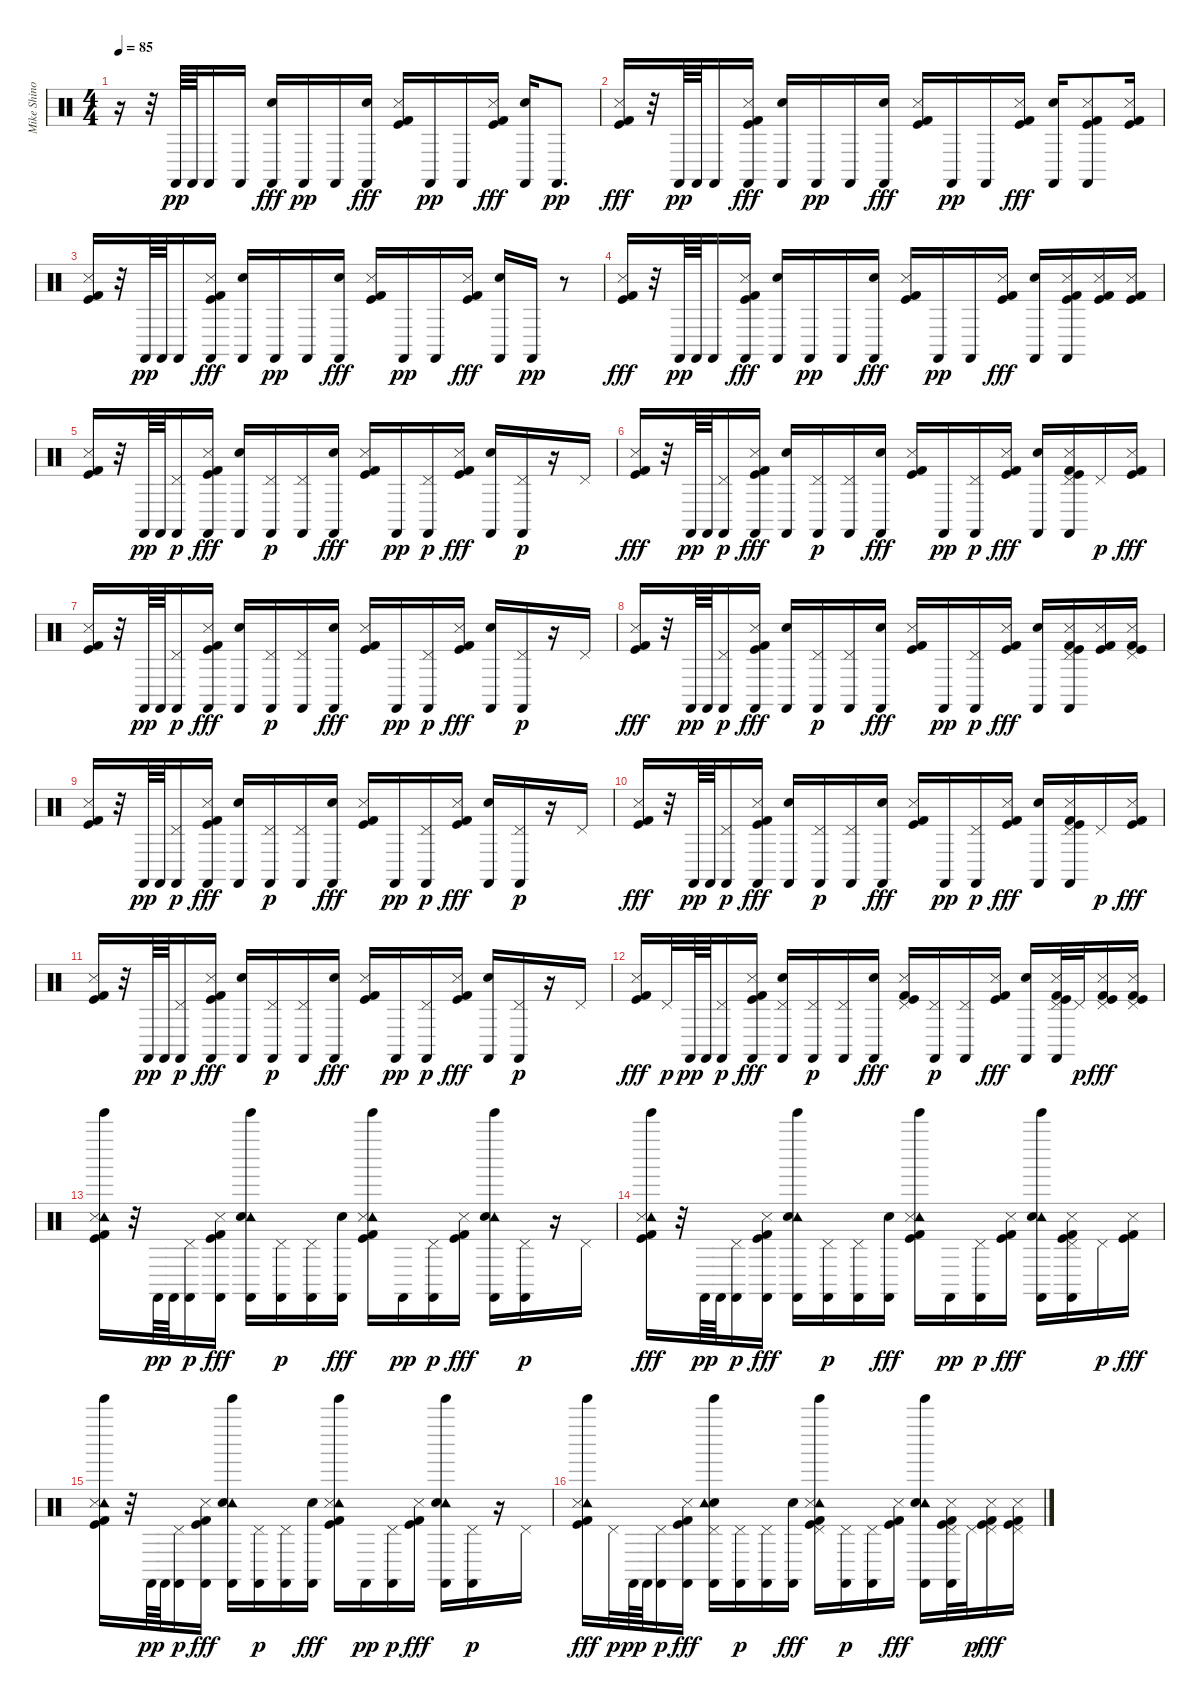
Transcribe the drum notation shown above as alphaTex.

\track ("Mike Shinoda - Percussion" "Mike Shino") {instrument percussion}
\staff {score}
\articulation defaults
\ts (4 4)
\tempo 85
\clef neutral
\ks c
r.16{dy fff} r.32 "Castanets (hit)".64{dy pp} "Castanets (hit)".64 "Castanets (hit)".16 "Castanets (hit)".16 ("Castanets (hit)" "Hand Clap (hit)").16{dy fff} "Castanets (hit)".16{dy pp} "Castanets (hit)".16 ("Castanets (hit)" "Hand Clap (hit)").16{dy fff} ("Snare (side stick) 3" "Kick (hit)" "Kick (hit) 2").16 "Castanets (hit)".16{dy pp} "Castanets (hit)".16 ("Snare (side stick) 3" "Kick (hit)" "Kick (hit) 2").16{dy fff} ("Castanets (hit)" "Hand Clap (hit)").16 "Castanets (hit)".8{d dy pp} |
("Snare (side stick) 3" "Kick (hit)" "Kick (hit) 2").16{dy fff} r.32 "Castanets (hit)".64{dy pp} "Castanets (hit)".64 "Castanets (hit)".16 ("Castanets (hit)" "Snare (side stick) 3" "Kick (hit)" "Kick (hit) 2").16{dy fff} ("Castanets (hit)" "Hand Clap (hit)").16 "Castanets (hit)".16{dy pp} "Castanets (hit)".16 ("Castanets (hit)" "Hand Clap (hit)").16{dy fff} ("Snare (side stick) 3" "Kick (hit)" "Kick (hit) 2").16 "Castanets (hit)".16{dy pp} "Castanets (hit)".16 ("Snare (side stick) 3" "Kick (hit)" "Kick (hit) 2").16{dy fff} ("Castanets (hit)" "Hand Clap (hit)").16 ("Castanets (hit)" "Snare (side stick) 3" "Kick (hit)" "Kick (hit) 2").8 ("Snare (side stick) 3" "Kick (hit)" "Kick (hit) 2").16 |
("Snare (side stick) 3" "Kick (hit)" "Kick (hit) 2").16 r.32 "Castanets (hit)".64{dy pp} "Castanets (hit)".64 "Castanets (hit)".16 ("Castanets (hit)" "Snare (side stick) 3" "Kick (hit)" "Kick (hit) 2").16{dy fff} ("Castanets (hit)" "Hand Clap (hit)").16 "Castanets (hit)".16{dy pp} "Castanets (hit)".16 ("Castanets (hit)" "Hand Clap (hit)").16{dy fff} ("Snare (side stick) 3" "Kick (hit)" "Kick (hit) 2").16 "Castanets (hit)".16{dy pp} "Castanets (hit)".16 ("Snare (side stick) 3" "Kick (hit)" "Kick (hit) 2").16{dy fff} ("Castanets (hit)" "Hand Clap (hit)").16 "Castanets (hit)".16{dy pp} r.8 |
("Snare (side stick) 3" "Kick (hit)" "Kick (hit) 2").16{dy fff} r.32 "Castanets (hit)".64{dy pp} "Castanets (hit)".64 "Castanets (hit)".16 ("Castanets (hit)" "Snare (side stick) 3" "Kick (hit)" "Kick (hit) 2").16{dy fff} ("Castanets (hit)" "Hand Clap (hit)").16 "Castanets (hit)".16{dy pp} "Castanets (hit)".16 ("Castanets (hit)" "Hand Clap (hit)").16{dy fff} ("Snare (side stick) 3" "Kick (hit)" "Kick (hit) 2").16 "Castanets (hit)".16{dy pp} "Castanets (hit)".16 ("Snare (side stick) 3" "Kick (hit)" "Kick (hit) 2").16{dy fff} ("Castanets (hit)" "Hand Clap (hit)").16 ("Castanets (hit)" "Snare (side stick) 3" "Kick (hit)" "Kick (hit) 2").16 ("Snare (side stick) 3" "Kick (hit)" "Kick (hit) 2").16 ("Snare (side stick) 3" "Kick (hit)" "Kick (hit) 2").16 |
("Snare (side stick) 3" "Kick (hit)" "Kick (hit) 2").16 r.32 "Castanets (hit)".64{dy pp} "Castanets (hit)".64 ("Castanets (hit)" "Pedal Hi-Hat (hit)").16{dy p} ("Castanets (hit)" "Snare (side stick) 3" "Kick (hit)" "Kick (hit) 2").16{dy fff} ("Castanets (hit)" "Hand Clap (hit)").16 ("Castanets (hit)" "Pedal Hi-Hat (hit)").16{dy p} ("Castanets (hit)" "Pedal Hi-Hat (hit)").16 ("Castanets (hit)" "Hand Clap (hit)").16{dy fff} ("Snare (side stick) 3" "Kick (hit)" "Kick (hit) 2").16 "Castanets (hit)".16{dy pp} ("Castanets (hit)" "Pedal Hi-Hat (hit)").16{dy p} ("Snare (side stick) 3" "Kick (hit)" "Kick (hit) 2").16{dy fff} ("Castanets (hit)" "Hand Clap (hit)").16 ("Castanets (hit)" "Pedal Hi-Hat (hit)").16{dy p} r.16 "Pedal Hi-Hat (hit)".16 |
("Snare (side stick) 3" "Kick (hit)" "Kick (hit) 2").16{dy fff} r.32 "Castanets (hit)".64{dy pp} "Castanets (hit)".64 ("Castanets (hit)" "Pedal Hi-Hat (hit)").16{dy p} ("Castanets (hit)" "Snare (side stick) 3" "Kick (hit)" "Kick (hit) 2").16{dy fff} ("Castanets (hit)" "Hand Clap (hit)").16 ("Castanets (hit)" "Pedal Hi-Hat (hit)").16{dy p} ("Castanets (hit)" "Pedal Hi-Hat (hit)").16 ("Castanets (hit)" "Hand Clap (hit)").16{dy fff} ("Snare (side stick) 3" "Kick (hit)" "Kick (hit) 2").16 "Castanets (hit)".16{dy pp} ("Castanets (hit)" "Pedal Hi-Hat (hit)").16{dy p} ("Snare (side stick) 3" "Kick (hit)" "Kick (hit) 2").16{dy fff} ("Castanets (hit)" "Hand Clap (hit)").16 ("Castanets (hit)" "Pedal Hi-Hat (hit)" "Snare (side stick) 3" "Kick (hit)" "Kick (hit) 2").16 "Pedal Hi-Hat (hit)".16{dy p} ("Snare (side stick) 3" "Kick (hit)" "Kick (hit) 2").16{dy fff} |
("Snare (side stick) 3" "Kick (hit)" "Kick (hit) 2").16 r.32 "Castanets (hit)".64{dy pp} "Castanets (hit)".64 ("Castanets (hit)" "Pedal Hi-Hat (hit)").16{dy p} ("Castanets (hit)" "Snare (side stick) 3" "Kick (hit)" "Kick (hit) 2").16{dy fff} ("Castanets (hit)" "Hand Clap (hit)").16 ("Castanets (hit)" "Pedal Hi-Hat (hit)").16{dy p} ("Castanets (hit)" "Pedal Hi-Hat (hit)").16 ("Castanets (hit)" "Hand Clap (hit)").16{dy fff} ("Snare (side stick) 3" "Kick (hit)" "Kick (hit) 2").16 "Castanets (hit)".16{dy pp} ("Castanets (hit)" "Pedal Hi-Hat (hit)").16{dy p} ("Snare (side stick) 3" "Kick (hit)" "Kick (hit) 2").16{dy fff} ("Castanets (hit)" "Hand Clap (hit)").16 ("Castanets (hit)" "Pedal Hi-Hat (hit)").16{dy p} r.16 "Pedal Hi-Hat (hit)".16 |
("Snare (side stick) 3" "Kick (hit)" "Kick (hit) 2").16{dy fff} r.32 "Castanets (hit)".64{dy pp} "Castanets (hit)".64 ("Castanets (hit)" "Pedal Hi-Hat (hit)").16{dy p} ("Castanets (hit)" "Snare (side stick) 3" "Kick (hit)" "Kick (hit) 2").16{dy fff} ("Castanets (hit)" "Hand Clap (hit)").16 ("Castanets (hit)" "Pedal Hi-Hat (hit)").16{dy p} ("Castanets (hit)" "Pedal Hi-Hat (hit)").16 ("Castanets (hit)" "Hand Clap (hit)").16{dy fff} ("Snare (side stick) 3" "Kick (hit)" "Kick (hit) 2").16 "Castanets (hit)".16{dy pp} ("Castanets (hit)" "Pedal Hi-Hat (hit)").16{dy p} ("Snare (side stick) 3" "Kick (hit)" "Kick (hit) 2").16{dy fff} ("Castanets (hit)" "Hand Clap (hit)").16 ("Castanets (hit)" "Pedal Hi-Hat (hit)" "Snare (side stick) 3" "Kick (hit)" "Kick (hit) 2").16 ("Snare (side stick) 3" "Kick (hit)" "Kick (hit) 2").16 ("Pedal Hi-Hat (hit)" "Snare (side stick) 3" "Kick (hit)" "Kick (hit) 2").16 |
("Snare (side stick) 3" "Kick (hit)" "Kick (hit) 2").16 r.32 "Castanets (hit)".64{dy pp} "Castanets (hit)".64 ("Castanets (hit)" "Pedal Hi-Hat (hit)").16{dy p} ("Castanets (hit)" "Snare (side stick) 3" "Kick (hit)" "Kick (hit) 2").16{dy fff} ("Castanets (hit)" "Hand Clap (hit)").16 ("Castanets (hit)" "Pedal Hi-Hat (hit)").16{dy p} ("Castanets (hit)" "Pedal Hi-Hat (hit)").16 ("Castanets (hit)" "Hand Clap (hit)").16{dy fff} ("Snare (side stick) 3" "Kick (hit)" "Kick (hit) 2").16 "Castanets (hit)".16{dy pp} ("Castanets (hit)" "Pedal Hi-Hat (hit)").16{dy p} ("Snare (side stick) 3" "Kick (hit)" "Kick (hit) 2").16{dy fff} ("Castanets (hit)" "Hand Clap (hit)").16 ("Castanets (hit)" "Pedal Hi-Hat (hit)").16{dy p} r.16 "Pedal Hi-Hat (hit)".16 |
("Snare (side stick) 3" "Kick (hit)" "Kick (hit) 2").16{dy fff} r.32 "Castanets (hit)".64{dy pp} "Castanets (hit)".64 ("Castanets (hit)" "Pedal Hi-Hat (hit)").16{dy p} ("Castanets (hit)" "Snare (side stick) 3" "Kick (hit)" "Kick (hit) 2").16{dy fff} ("Castanets (hit)" "Hand Clap (hit)").16 ("Castanets (hit)" "Pedal Hi-Hat (hit)").16{dy p} ("Castanets (hit)" "Pedal Hi-Hat (hit)").16 ("Castanets (hit)" "Hand Clap (hit)").16{dy fff} ("Snare (side stick) 3" "Kick (hit)" "Kick (hit) 2").16 "Castanets (hit)".16{dy pp} ("Castanets (hit)" "Pedal Hi-Hat (hit)").16{dy p} ("Snare (side stick) 3" "Kick (hit)" "Kick (hit) 2").16{dy fff} ("Castanets (hit)" "Hand Clap (hit)").16 ("Castanets (hit)" "Pedal Hi-Hat (hit)" "Snare (side stick) 3" "Kick (hit)" "Kick (hit) 2").16 "Pedal Hi-Hat (hit)".16{dy p} ("Snare (side stick) 3" "Kick (hit)" "Kick (hit) 2").16{dy fff} |
("Snare (side stick) 3" "Kick (hit)" "Kick (hit) 2").16 r.32 "Castanets (hit)".64{dy pp} "Castanets (hit)".64 ("Castanets (hit)" "Pedal Hi-Hat (hit)").16{dy p} ("Castanets (hit)" "Snare (side stick) 3" "Kick (hit)" "Kick (hit) 2").16{dy fff} ("Castanets (hit)" "Hand Clap (hit)").16 ("Castanets (hit)" "Pedal Hi-Hat (hit)").16{dy p} ("Castanets (hit)" "Pedal Hi-Hat (hit)").16 ("Castanets (hit)" "Hand Clap (hit)").16{dy fff} ("Snare (side stick) 3" "Kick (hit)" "Kick (hit) 2").16 "Castanets (hit)".16{dy pp} ("Castanets (hit)" "Pedal Hi-Hat (hit)").16{dy p} ("Snare (side stick) 3" "Kick (hit)" "Kick (hit) 2").16{dy fff} ("Castanets (hit)" "Hand Clap (hit)").16 ("Castanets (hit)" "Pedal Hi-Hat (hit)").16{dy p} r.16 "Pedal Hi-Hat (hit)".16 |
("Snare (side stick) 3" "Kick (hit)" "Kick (hit) 2").16{dy fff} "Pedal Hi-Hat (hit)".32{dy p} "Castanets (hit)".64{dy pp} "Castanets (hit)".64 ("Castanets (hit)" "Pedal Hi-Hat (hit)").16{dy p} ("Castanets (hit)" "Snare (side stick) 3" "Kick (hit)" "Kick (hit) 2").16{dy fff} ("Castanets (hit)" "Pedal Hi-Hat (hit)" "Hand Clap (hit)").16 ("Castanets (hit)" "Pedal Hi-Hat (hit)").16{dy p} ("Castanets (hit)" "Pedal Hi-Hat (hit)").16 ("Castanets (hit)" "Hand Clap (hit)").16{dy fff} ("Pedal Hi-Hat (hit)" "Snare (side stick) 3" "Kick (hit)" "Kick (hit) 2").16 ("Castanets (hit)" "Pedal Hi-Hat (hit)").16{dy p} ("Castanets (hit)" "Pedal Hi-Hat (hit)").16 ("Snare (side stick) 3" "Kick (hit)" "Kick (hit) 2").16{dy fff} ("Castanets (hit)" "Hand Clap (hit)").16 ("Castanets (hit)" "Pedal Hi-Hat (hit)" "Snare (side stick) 3" "Kick (hit)" "Kick (hit) 2").32 "Pedal Hi-Hat (hit)".32{dy p} ("Pedal Hi-Hat (hit)" "Snare (side stick) 3" "Kick (hit)" "Kick (hit) 2").16{dy fff} ("Pedal Hi-Hat (hit)" "Snare (side stick) 3" "Kick (hit)" "Kick (hit) 2").16 |
("Tambourine (hit)" "Tinkle Bell (hit)" "Snare (side stick) 3" "Kick (hit)" "Kick (hit) 2").16 r.32 "Castanets (hit)".64{dy pp} "Castanets (hit)".64 ("Castanets (hit)" "Pedal Hi-Hat (hit)").16{dy p} ("Castanets (hit)" "Snare (side stick) 3" "Kick (hit)" "Kick (hit) 2").16{dy fff} ("Castanets (hit)" "Tambourine (hit)" "Hand Clap (hit)" "Tinkle Bell (hit)").16 ("Castanets (hit)" "Pedal Hi-Hat (hit)").16{dy p} ("Castanets (hit)" "Pedal Hi-Hat (hit)").16 ("Castanets (hit)" "Hand Clap (hit)").16{dy fff} ("Tambourine (hit)" "Tinkle Bell (hit)" "Snare (side stick) 3" "Kick (hit)" "Kick (hit) 2").16 "Castanets (hit)".16{dy pp} ("Castanets (hit)" "Pedal Hi-Hat (hit)").16{dy p} ("Snare (side stick) 3" "Kick (hit)" "Kick (hit) 2").16{dy fff} ("Castanets (hit)" "Tambourine (hit)" "Hand Clap (hit)" "Tinkle Bell (hit)").16 ("Castanets (hit)" "Pedal Hi-Hat (hit)").16{dy p} r.16 "Pedal Hi-Hat (hit)".16 |
("Tambourine (hit)" "Tinkle Bell (hit)" "Snare (side stick) 3" "Kick (hit)" "Kick (hit) 2").16{dy fff} r.32 "Castanets (hit)".64{dy pp} "Castanets (hit)".64 ("Castanets (hit)" "Pedal Hi-Hat (hit)").16{dy p} ("Castanets (hit)" "Snare (side stick) 3" "Kick (hit)" "Kick (hit) 2").16{dy fff} ("Castanets (hit)" "Tambourine (hit)" "Hand Clap (hit)" "Tinkle Bell (hit)").16 ("Castanets (hit)" "Pedal Hi-Hat (hit)").16{dy p} ("Castanets (hit)" "Pedal Hi-Hat (hit)").16 ("Castanets (hit)" "Hand Clap (hit)").16{dy fff} ("Tambourine (hit)" "Tinkle Bell (hit)" "Snare (side stick) 3" "Kick (hit)" "Kick (hit) 2").16 "Castanets (hit)".16{dy pp} ("Castanets (hit)" "Pedal Hi-Hat (hit)").16{dy p} ("Snare (side stick) 3" "Kick (hit)" "Kick (hit) 2").16{dy fff} ("Castanets (hit)" "Tambourine (hit)" "Hand Clap (hit)" "Tinkle Bell (hit)").16 ("Castanets (hit)" "Pedal Hi-Hat (hit)" "Snare (side stick) 3" "Kick (hit)" "Kick (hit) 2").16 "Pedal Hi-Hat (hit)".16{dy p} ("Snare (side stick) 3" "Kick (hit)" "Kick (hit) 2").16{dy fff} |
("Tambourine (hit)" "Tinkle Bell (hit)" "Snare (side stick) 3" "Kick (hit)" "Kick (hit) 2").16 r.32 "Castanets (hit)".64{dy pp} "Castanets (hit)".64 ("Castanets (hit)" "Pedal Hi-Hat (hit)").16{dy p} ("Castanets (hit)" "Snare (side stick) 3" "Kick (hit)" "Kick (hit) 2").16{dy fff} ("Castanets (hit)" "Tambourine (hit)" "Hand Clap (hit)" "Tinkle Bell (hit)").16 ("Castanets (hit)" "Pedal Hi-Hat (hit)").16{dy p} ("Castanets (hit)" "Pedal Hi-Hat (hit)").16 ("Castanets (hit)" "Hand Clap (hit)").16{dy fff} ("Tambourine (hit)" "Tinkle Bell (hit)" "Snare (side stick) 3" "Kick (hit)" "Kick (hit) 2").16 "Castanets (hit)".16{dy pp} ("Castanets (hit)" "Pedal Hi-Hat (hit)").16{dy p} ("Snare (side stick) 3" "Kick (hit)" "Kick (hit) 2").16{dy fff} ("Castanets (hit)" "Tambourine (hit)" "Hand Clap (hit)" "Tinkle Bell (hit)").16 ("Castanets (hit)" "Pedal Hi-Hat (hit)").16{dy p} r.16 "Pedal Hi-Hat (hit)".16 |
("Tambourine (hit)" "Tinkle Bell (hit)" "Snare (side stick) 3" "Kick (hit)" "Kick (hit) 2").16{dy fff} "Pedal Hi-Hat (hit)".32{dy p} "Castanets (hit)".64{dy pp} "Castanets (hit)".64 ("Castanets (hit)" "Pedal Hi-Hat (hit)").16{dy p} ("Castanets (hit)" "Snare (side stick) 3" "Kick (hit)" "Kick (hit) 2").16{dy fff} ("Castanets (hit)" "Pedal Hi-Hat (hit)" "Hand Clap (hit)" "Tambourine (hit)" "Tinkle Bell (hit)").16 ("Castanets (hit)" "Pedal Hi-Hat (hit)").16{dy p} ("Castanets (hit)" "Pedal Hi-Hat (hit)").16 ("Castanets (hit)" "Hand Clap (hit)").16{dy fff} ("Tambourine (hit)" "Pedal Hi-Hat (hit)" "Tinkle Bell (hit)" "Snare (side stick) 3" "Kick (hit)" "Kick (hit) 2").16 ("Castanets (hit)" "Pedal Hi-Hat (hit)").16{dy p} ("Castanets (hit)" "Pedal Hi-Hat (hit)").16 ("Snare (side stick) 3" "Kick (hit)" "Kick (hit) 2").16{dy fff} ("Castanets (hit)" "Tambourine (hit)" "Hand Clap (hit)" "Tinkle Bell (hit)").16 ("Castanets (hit)" "Pedal Hi-Hat (hit)" "Snare (side stick) 3" "Kick (hit)" "Kick (hit) 2").32 "Pedal Hi-Hat (hit)".32{dy p} ("Pedal Hi-Hat (hit)" "Snare (side stick) 3" "Kick (hit)" "Kick (hit) 2").16{dy fff} ("Pedal Hi-Hat (hit)" "Snare (side stick) 3" "Kick (hit)" "Kick (hit) 2").16
